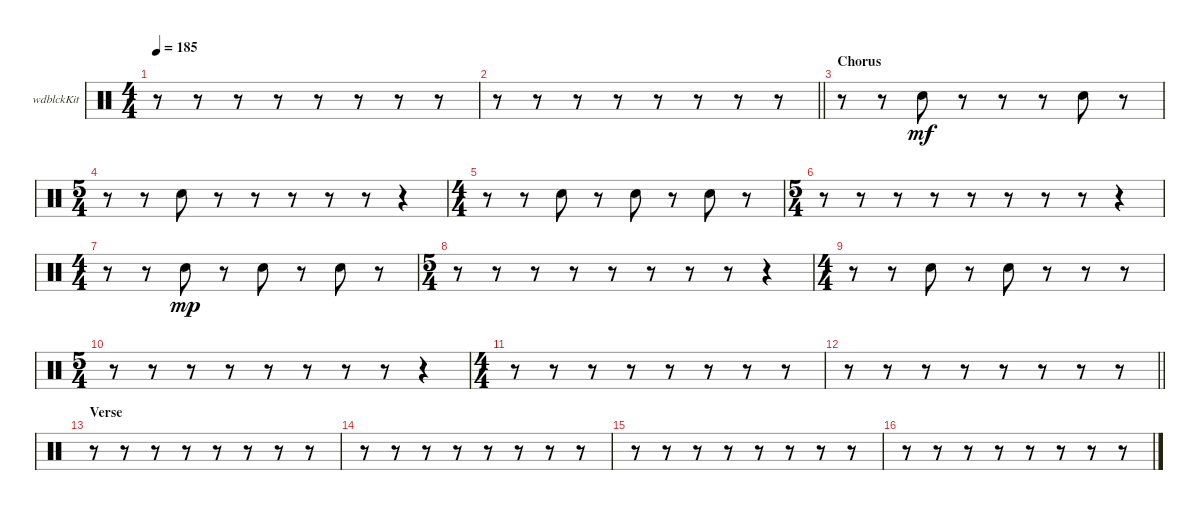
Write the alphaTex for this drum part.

\bracketExtendMode groupsimilarinstruments
\firstSystemTrackNameOrientation horizontal
\otherSystemsTrackNameOrientation horizontal
\track ("Woodblock" "wdblckKit") {instrument percussion}
\staff {score}
\articulation defaults
\ts (4 4)
\tempo 185
\clef neutral
\ks c
r.8{dy mf} r.8 r.8 r.8 r.8 r.8 r.8 r.8 |
\barLineRight lightlight
r.8 r.8 r.8 r.8 r.8 r.8 r.8 r.8 |
\section ("" "Chorus")
r.8 r.8 "Snare (hit) 2".8 r.8 r.8 r.8 "Snare (hit) 2".8 r.8 |
\ts (5 4)
\beaming (8 6 4)
r.8 r.8 "Snare (hit) 2".8 r.8 r.8 r.8 r.8 r.8 r.4 |
\ts (4 4)
\beaming (8 2 2 2 2)
r.8 r.8 "Snare (hit) 2".8 r.8 "Snare (hit) 2".8 r.8 "Snare (hit) 2".8 r.8 |
\ts (5 4)
\beaming (8 6 4)
r.8 r.8 r.8 r.8 r.8 r.8 r.8 r.8 r.4 |
\ts (4 4)
\beaming (8 2 2 2 2)
r.8 r.8 "Snare (hit) 2".8{dy mp} r.8 "Snare (hit) 2".8 r.8 "Snare (hit) 2".8 r.8 |
\ts (5 4)
\beaming (8 2 2 2 4)
r.8 r.8 r.8 r.8 r.8 r.8 r.8 r.8 r.4 |
\ts (4 4)
\beaming (8 2 2 2 2)
r.8 r.8 "Snare (hit) 2".8 r.8 "Snare (hit) 2".8 r.8 r.8 r.8 |
\ts (5 4)
\beaming (8 2 2 2 4)
r.8 r.8 r.8 r.8 r.8 r.8 r.8 r.8 r.4 |
\ts (4 4)
\beaming (8 2 2 2 2)
r.8 r.8 r.8 r.8 r.8 r.8 r.8 r.8 |
\barLineRight lightlight
r.8 r.8 r.8 r.8 r.8 r.8 r.8 r.8 |
\section ("" "Verse")
r.8 r.8 r.8 r.8 r.8 r.8 r.8 r.8 |
r.8 r.8 r.8 r.8 r.8 r.8 r.8 r.8 |
r.8 r.8 r.8 r.8 r.8 r.8 r.8 r.8 |
r.8 r.8 r.8 r.8 r.8 r.8 r.8 r.8
